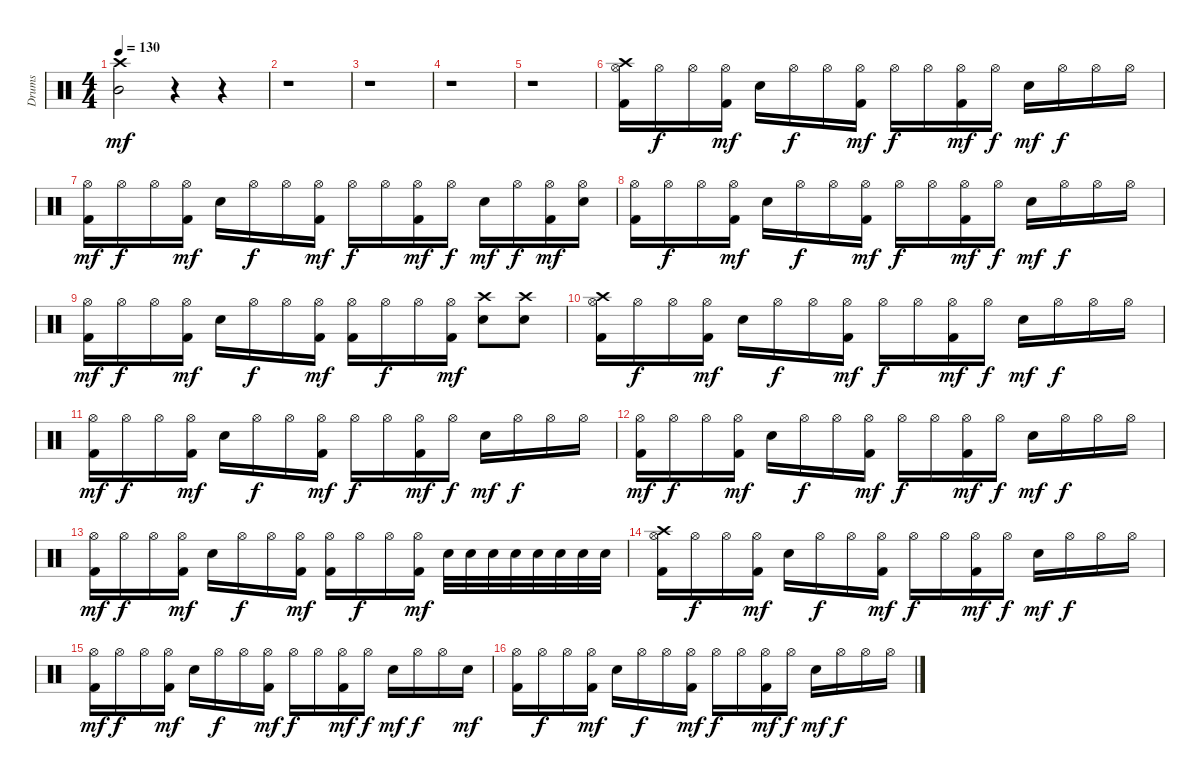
\track ("Drums" "Drums") {instrument percussion}
\staff {score}
\articulation defaults
\ts (4 4)
\tempo 130
\clef neutral
\ks c
("Crash high (hit)" "Mid Tom (hit)").2{dy mf} r.4 r.4 |
r.1 |
r.1 |
r.1 |
r.1 |
("Crash high (hit)" "Hi-Hat (open)" "Kick (hit) 2").16 "Hi-Hat (open)".16{dy f} "Hi-Hat (open)".16 ("Hi-Hat (open)" "Kick (hit) 2").16{dy mf} "Electric Snare (hit)".16 "Hi-Hat (open)".16{dy f} "Hi-Hat (open)".16 ("Hi-Hat (open)" "Kick (hit) 2").16{dy mf} "Hi-Hat (open)".16{dy f} "Hi-Hat (open)".16 ("Hi-Hat (open)" "Kick (hit) 2").16{dy mf} "Hi-Hat (open)".16{dy f} "Electric Snare (hit)".16{dy mf} "Hi-Hat (open)".16{dy f} "Hi-Hat (open)".16 "Hi-Hat (open)".16 |
("Hi-Hat (open)" "Kick (hit) 2").16{dy mf} "Hi-Hat (open)".16{dy f} "Hi-Hat (open)".16 ("Hi-Hat (open)" "Kick (hit) 2").16{dy mf} "Electric Snare (hit)".16 "Hi-Hat (open)".16{dy f} "Hi-Hat (open)".16 ("Hi-Hat (open)" "Kick (hit) 2").16{dy mf} "Hi-Hat (open)".16{dy f} "Hi-Hat (open)".16 ("Hi-Hat (open)" "Kick (hit) 2").16{dy mf} "Hi-Hat (open)".16{dy f} "Electric Snare (hit)".16{dy mf} "Hi-Hat (open)".16{dy f} ("Hi-Hat (open)" "Kick (hit) 2").16{dy mf} ("Hi-Hat (open)" "Electric Snare (hit)").16 |
("Hi-Hat (open)" "Kick (hit) 2").16 "Hi-Hat (open)".16{dy f} "Hi-Hat (open)".16 ("Hi-Hat (open)" "Kick (hit) 2").16{dy mf} "Electric Snare (hit)".16 "Hi-Hat (open)".16{dy f} "Hi-Hat (open)".16 ("Hi-Hat (open)" "Kick (hit) 2").16{dy mf} "Hi-Hat (open)".16{dy f} "Hi-Hat (open)".16 ("Hi-Hat (open)" "Kick (hit) 2").16{dy mf} "Hi-Hat (open)".16{dy f} "Electric Snare (hit)".16{dy mf} "Hi-Hat (open)".16{dy f} "Hi-Hat (open)".16 "Hi-Hat (open)".16 |
("Hi-Hat (open)" "Kick (hit) 2").16{dy mf} "Hi-Hat (open)".16{dy f} "Hi-Hat (open)".16 ("Hi-Hat (open)" "Kick (hit) 2").16{dy mf} "Electric Snare (hit)".16 "Hi-Hat (open)".16{dy f} "Hi-Hat (open)".16 ("Hi-Hat (open)" "Kick (hit) 2").16{dy mf} ("Hi-Hat (open)" "Kick (hit) 2").16 "Hi-Hat (open)".16{dy f} "Hi-Hat (open)".16 ("Hi-Hat (open)" "Kick (hit) 2").16{dy mf} ("Crash high (hit)" "Electric Snare (hit)").8 ("Crash high (hit)" "Electric Snare (hit)").8 |
("Crash high (hit)" "Hi-Hat (open)" "Kick (hit) 2").16 "Hi-Hat (open)".16{dy f} "Hi-Hat (open)".16 ("Hi-Hat (open)" "Kick (hit) 2").16{dy mf} "Electric Snare (hit)".16 "Hi-Hat (open)".16{dy f} "Hi-Hat (open)".16 ("Hi-Hat (open)" "Kick (hit) 2").16{dy mf} "Hi-Hat (open)".16{dy f} "Hi-Hat (open)".16 ("Hi-Hat (open)" "Kick (hit) 2").16{dy mf} "Hi-Hat (open)".16{dy f} "Electric Snare (hit)".16{dy mf} "Hi-Hat (open)".16{dy f} "Hi-Hat (open)".16 "Hi-Hat (open)".16 |
("Hi-Hat (open)" "Kick (hit) 2").16{dy mf} "Hi-Hat (open)".16{dy f} "Hi-Hat (open)".16 ("Hi-Hat (open)" "Kick (hit) 2").16{dy mf} "Electric Snare (hit)".16 "Hi-Hat (open)".16{dy f} "Hi-Hat (open)".16 ("Hi-Hat (open)" "Kick (hit) 2").16{dy mf} "Hi-Hat (open)".16{dy f} "Hi-Hat (open)".16 ("Hi-Hat (open)" "Kick (hit) 2").16{dy mf} "Hi-Hat (open)".16{dy f} "Electric Snare (hit)".16{dy mf} "Hi-Hat (open)".16{dy f} "Hi-Hat (open)".16 "Hi-Hat (open)".16 |
("Hi-Hat (open)" "Kick (hit) 2").16{dy mf} "Hi-Hat (open)".16{dy f} "Hi-Hat (open)".16 ("Hi-Hat (open)" "Kick (hit) 2").16{dy mf} "Electric Snare (hit)".16 "Hi-Hat (open)".16{dy f} "Hi-Hat (open)".16 ("Hi-Hat (open)" "Kick (hit) 2").16{dy mf} "Hi-Hat (open)".16{dy f} "Hi-Hat (open)".16 ("Hi-Hat (open)" "Kick (hit) 2").16{dy mf} "Hi-Hat (open)".16{dy f} "Electric Snare (hit)".16{dy mf} "Hi-Hat (open)".16{dy f} "Hi-Hat (open)".16 "Hi-Hat (open)".16 |
("Hi-Hat (open)" "Kick (hit) 2").16{dy mf} "Hi-Hat (open)".16{dy f} "Hi-Hat (open)".16 ("Hi-Hat (open)" "Kick (hit) 2").16{dy mf} "Electric Snare (hit)".16 "Hi-Hat (open)".16{dy f} "Hi-Hat (open)".16 ("Hi-Hat (open)" "Kick (hit) 2").16{dy mf} ("Hi-Hat (open)" "Kick (hit) 2").16 "Hi-Hat (open)".16{dy f} "Hi-Hat (open)".16 ("Hi-Hat (open)" "Kick (hit) 2").16{dy mf} "Electric Snare (hit)".32 "Electric Snare (hit)".32 "Electric Snare (hit)".32 "Electric Snare (hit)".32 "Electric Snare (hit)".32 "Electric Snare (hit)".32 "Electric Snare (hit)".32 "Electric Snare (hit)".32 |
("Crash high (hit)" "Hi-Hat (open)" "Kick (hit) 2").16 "Hi-Hat (open)".16{dy f} "Hi-Hat (open)".16 ("Hi-Hat (open)" "Kick (hit) 2").16{dy mf} "Electric Snare (hit)".16 "Hi-Hat (open)".16{dy f} "Hi-Hat (open)".16 ("Hi-Hat (open)" "Kick (hit) 2").16{dy mf} "Hi-Hat (open)".16{dy f} "Hi-Hat (open)".16 ("Hi-Hat (open)" "Kick (hit) 2").16{dy mf} "Hi-Hat (open)".16{dy f} "Electric Snare (hit)".16{dy mf} "Hi-Hat (open)".16{dy f} "Hi-Hat (open)".16 "Hi-Hat (open)".16 |
("Hi-Hat (open)" "Kick (hit) 2").16{dy mf} "Hi-Hat (open)".16{dy f} "Hi-Hat (open)".16 ("Hi-Hat (open)" "Kick (hit) 2").16{dy mf} "Electric Snare (hit)".16 "Hi-Hat (open)".16{dy f} "Hi-Hat (open)".16 ("Hi-Hat (open)" "Kick (hit) 2").16{dy mf} "Hi-Hat (open)".16{dy f} "Hi-Hat (open)".16 ("Hi-Hat (open)" "Kick (hit) 2").16{dy mf} "Hi-Hat (open)".16{dy f} "Electric Snare (hit)".16{dy mf} "Hi-Hat (open)".16{dy f} "Hi-Hat (open)".16 "Electric Snare (hit)".16{dy mf} |
("Hi-Hat (open)" "Kick (hit) 2").16 "Hi-Hat (open)".16{dy f} "Hi-Hat (open)".16 ("Hi-Hat (open)" "Kick (hit) 2").16{dy mf} "Electric Snare (hit)".16 "Hi-Hat (open)".16{dy f} "Hi-Hat (open)".16 ("Hi-Hat (open)" "Kick (hit) 2").16{dy mf} "Hi-Hat (open)".16{dy f} "Hi-Hat (open)".16 ("Hi-Hat (open)" "Kick (hit) 2").16{dy mf} "Hi-Hat (open)".16{dy f} "Electric Snare (hit)".16{dy mf} "Hi-Hat (open)".16{dy f} "Hi-Hat (open)".16 "Hi-Hat (open)".16
